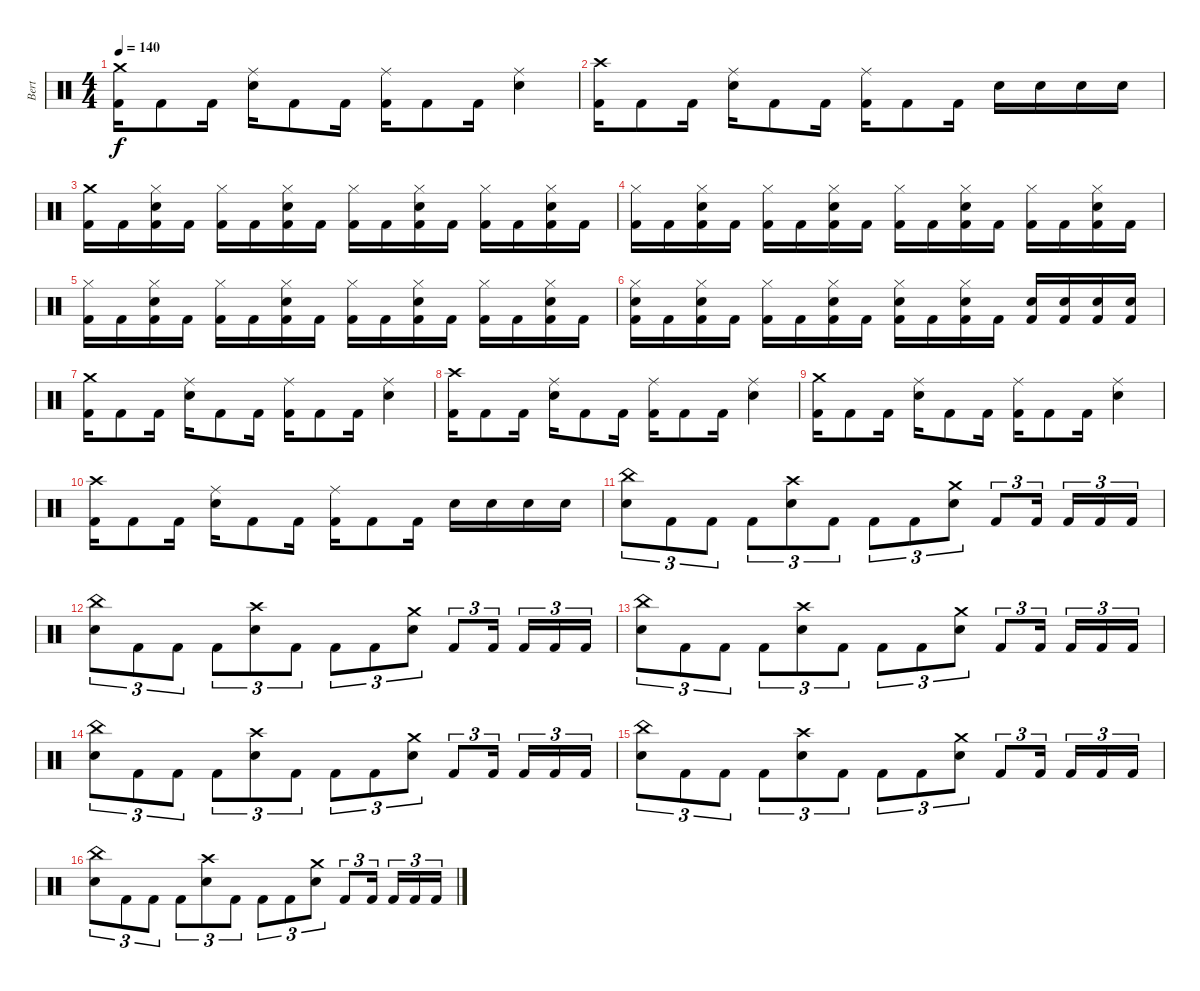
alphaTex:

\track ("Bert" "Bert") {instrument percussion}
\staff {score}
\articulation defaults
\ts (4 4)
\tempo 140
\clef neutral
\ks c
("Crash medium (hit)" "Kick (hit) 2").16{dy f} "Kick (hit) 2".8 "Kick (hit) 2".16 ("Ride (middle)" "Snare (hit) 2").16 "Kick (hit) 2".8 "Kick (hit) 2".16 ("Ride (middle)" "Kick (hit) 2").16 "Kick (hit) 2".8 "Kick (hit) 2".16 ("Ride (middle)" "Snare (hit) 2").4 |
("Crash high (hit)" "Kick (hit) 2").16 "Kick (hit) 2".8 "Kick (hit) 2".16 ("Ride (middle)" "Snare (hit) 2").16 "Kick (hit) 2".8 "Kick (hit) 2".16 ("Ride (middle)" "Kick (hit) 2").16 "Kick (hit) 2".8 "Kick (hit) 2".16 "Snare (hit) 2".16 "Snare (hit) 2".16 "Snare (hit) 2".16 "Snare (hit) 2".16 |
("Crash medium (hit)" "Kick (hit) 2").16 "Kick (hit) 2".16 ("Hi-Hat (closed)" "Snare (hit) 2" "Kick (hit) 2").16 "Kick (hit) 2".16 ("Hi-Hat (closed)" "Kick (hit) 2").16 "Kick (hit) 2".16 ("Hi-Hat (closed)" "Snare (hit) 2" "Kick (hit) 2").16 "Kick (hit) 2".16 ("Hi-Hat (closed)" "Kick (hit) 2").16 "Kick (hit) 2".16 ("Hi-Hat (closed)" "Snare (hit) 2" "Kick (hit) 2").16 "Kick (hit) 2".16 ("Hi-Hat (closed)" "Kick (hit) 2").16 "Kick (hit) 2".16 ("Hi-Hat (closed)" "Snare (hit) 2" "Kick (hit) 2").16 "Kick (hit) 2".16 |
("Hi-Hat (closed)" "Kick (hit) 2").16 "Kick (hit) 2".16 ("Hi-Hat (closed)" "Snare (hit) 2" "Kick (hit) 2").16 "Kick (hit) 2".16 ("Hi-Hat (closed)" "Kick (hit) 2").16 "Kick (hit) 2".16 ("Hi-Hat (closed)" "Snare (hit) 2" "Kick (hit) 2").16 "Kick (hit) 2".16 ("Hi-Hat (closed)" "Kick (hit) 2").16 "Kick (hit) 2".16 ("Hi-Hat (closed)" "Snare (hit) 2" "Kick (hit) 2").16 "Kick (hit) 2".16 ("Hi-Hat (closed)" "Kick (hit) 2").16 "Kick (hit) 2".16 ("Hi-Hat (closed)" "Snare (hit) 2" "Kick (hit) 2").16 "Kick (hit) 2".16 |
("Hi-Hat (closed)" "Kick (hit) 2").16 "Kick (hit) 2".16 ("Hi-Hat (closed)" "Snare (hit) 2" "Kick (hit) 2").16 "Kick (hit) 2".16 ("Hi-Hat (closed)" "Kick (hit) 2").16 "Kick (hit) 2".16 ("Hi-Hat (closed)" "Snare (hit) 2" "Kick (hit) 2").16 "Kick (hit) 2".16 ("Hi-Hat (closed)" "Kick (hit) 2").16 "Kick (hit) 2".16 ("Hi-Hat (closed)" "Snare (hit) 2" "Kick (hit) 2").16 "Kick (hit) 2".16 ("Hi-Hat (closed)" "Kick (hit) 2").16 "Kick (hit) 2".16 ("Hi-Hat (closed)" "Snare (hit) 2" "Kick (hit) 2").16 "Kick (hit) 2".16 |
("Hi-Hat (closed)" "Snare (hit) 2" "Kick (hit) 2").16 "Kick (hit) 2".16 ("Hi-Hat (closed)" "Snare (hit) 2" "Kick (hit) 2").16 "Kick (hit) 2".16 ("Hi-Hat (closed)" "Kick (hit) 2").16 "Kick (hit) 2".16 ("Hi-Hat (closed)" "Snare (hit) 2" "Kick (hit) 2").16 "Kick (hit) 2".16 ("Hi-Hat (closed)" "Snare (hit) 2" "Kick (hit) 2").16 "Kick (hit) 2".16 ("Hi-Hat (closed)" "Snare (hit) 2" "Kick (hit) 2").16 "Kick (hit) 2".16 ("Snare (hit) 2" "Kick (hit) 2").16 ("Snare (hit) 2" "Kick (hit) 2").16 ("Snare (hit) 2" "Kick (hit) 2").16 ("Snare (hit) 2" "Kick (hit) 2").16 |
("Crash medium (hit)" "Kick (hit) 2").16 "Kick (hit) 2".8 "Kick (hit) 2".16 ("Ride (middle)" "Snare (hit) 2").16 "Kick (hit) 2".8 "Kick (hit) 2".16 ("Ride (middle)" "Kick (hit) 2").16 "Kick (hit) 2".8 "Kick (hit) 2".16 ("Ride (middle)" "Snare (hit) 2").4 |
("Crash high (hit)" "Kick (hit) 2").16 "Kick (hit) 2".8 "Kick (hit) 2".16 ("Ride (middle)" "Snare (hit) 2").16 "Kick (hit) 2".8 "Kick (hit) 2".16 ("Ride (middle)" "Kick (hit) 2").16 "Kick (hit) 2".8 "Kick (hit) 2".16 ("Ride (middle)" "Snare (hit) 2").4 |
("Crash medium (hit)" "Kick (hit) 2").16 "Kick (hit) 2".8 "Kick (hit) 2".16 ("Ride (middle)" "Snare (hit) 2").16 "Kick (hit) 2".8 "Kick (hit) 2".16 ("Ride (middle)" "Kick (hit) 2").16 "Kick (hit) 2".8 "Kick (hit) 2".16 ("Ride (middle)" "Snare (hit) 2").4 |
("Crash high (hit)" "Kick (hit) 2").16 "Kick (hit) 2".8 "Kick (hit) 2".16 ("Ride (middle)" "Snare (hit) 2").16 "Kick (hit) 2".8 "Kick (hit) 2".16 ("Ride (middle)" "Kick (hit) 2").16 "Kick (hit) 2".8 "Kick (hit) 2".16 "Snare (hit) 2".16 "Snare (hit) 2".16 "Snare (hit) 2".16 "Snare (hit) 2".16 |
("China (hit)" "Snare (hit) 2").8{tu (3 2)} "Kick (hit) 2".8{tu (3 2)} "Kick (hit) 2".8{tu (3 2)} "Kick (hit) 2".8{tu (3 2)} ("Crash high (hit)" "Snare (hit) 2").8{tu (3 2)} "Kick (hit) 2".8{tu (3 2)} "Kick (hit) 2".8{tu (3 2)} "Kick (hit) 2".8{tu (3 2)} ("Crash medium (hit)" "Snare (hit) 2").8{tu (3 2)} "Kick (hit) 2".8{tu (3 2)} "Kick (hit) 2".16{tu (3 2)} "Kick (hit) 2".16{tu (3 2)} "Kick (hit) 2".16{tu (3 2)} "Kick (hit) 2".16{tu (3 2)} |
("China (hit)" "Snare (hit) 2").8{tu (3 2)} "Kick (hit) 2".8{tu (3 2)} "Kick (hit) 2".8{tu (3 2)} "Kick (hit) 2".8{tu (3 2)} ("Crash high (hit)" "Snare (hit) 2").8{tu (3 2)} "Kick (hit) 2".8{tu (3 2)} "Kick (hit) 2".8{tu (3 2)} "Kick (hit) 2".8{tu (3 2)} ("Crash medium (hit)" "Snare (hit) 2").8{tu (3 2)} "Kick (hit) 2".8{tu (3 2)} "Kick (hit) 2".16{tu (3 2)} "Kick (hit) 2".16{tu (3 2)} "Kick (hit) 2".16{tu (3 2)} "Kick (hit) 2".16{tu (3 2)} |
("China (hit)" "Snare (hit) 2").8{tu (3 2)} "Kick (hit) 2".8{tu (3 2)} "Kick (hit) 2".8{tu (3 2)} "Kick (hit) 2".8{tu (3 2)} ("Crash high (hit)" "Snare (hit) 2").8{tu (3 2)} "Kick (hit) 2".8{tu (3 2)} "Kick (hit) 2".8{tu (3 2)} "Kick (hit) 2".8{tu (3 2)} ("Crash medium (hit)" "Snare (hit) 2").8{tu (3 2)} "Kick (hit) 2".8{tu (3 2)} "Kick (hit) 2".16{tu (3 2)} "Kick (hit) 2".16{tu (3 2)} "Kick (hit) 2".16{tu (3 2)} "Kick (hit) 2".16{tu (3 2)} |
("China (hit)" "Snare (hit) 2").8{tu (3 2)} "Kick (hit) 2".8{tu (3 2)} "Kick (hit) 2".8{tu (3 2)} "Kick (hit) 2".8{tu (3 2)} ("Crash high (hit)" "Snare (hit) 2").8{tu (3 2)} "Kick (hit) 2".8{tu (3 2)} "Kick (hit) 2".8{tu (3 2)} "Kick (hit) 2".8{tu (3 2)} ("Crash medium (hit)" "Snare (hit) 2").8{tu (3 2)} "Kick (hit) 2".8{tu (3 2)} "Kick (hit) 2".16{tu (3 2)} "Kick (hit) 2".16{tu (3 2)} "Kick (hit) 2".16{tu (3 2)} "Kick (hit) 2".16{tu (3 2)} |
("China (hit)" "Snare (hit) 2").8{tu (3 2)} "Kick (hit) 2".8{tu (3 2)} "Kick (hit) 2".8{tu (3 2)} "Kick (hit) 2".8{tu (3 2)} ("Crash high (hit)" "Snare (hit) 2").8{tu (3 2)} "Kick (hit) 2".8{tu (3 2)} "Kick (hit) 2".8{tu (3 2)} "Kick (hit) 2".8{tu (3 2)} ("Crash medium (hit)" "Snare (hit) 2").8{tu (3 2)} "Kick (hit) 2".8{tu (3 2)} "Kick (hit) 2".16{tu (3 2)} "Kick (hit) 2".16{tu (3 2)} "Kick (hit) 2".16{tu (3 2)} "Kick (hit) 2".16{tu (3 2)} |
("China (hit)" "Snare (hit) 2").8{tu (3 2)} "Kick (hit) 2".8{tu (3 2)} "Kick (hit) 2".8{tu (3 2)} "Kick (hit) 2".8{tu (3 2)} ("Crash high (hit)" "Snare (hit) 2").8{tu (3 2)} "Kick (hit) 2".8{tu (3 2)} "Kick (hit) 2".8{tu (3 2)} "Kick (hit) 2".8{tu (3 2)} ("Crash medium (hit)" "Snare (hit) 2").8{tu (3 2)} "Kick (hit) 2".8{tu (3 2)} "Kick (hit) 2".16{tu (3 2)} "Kick (hit) 2".16{tu (3 2)} "Kick (hit) 2".16{tu (3 2)} "Kick (hit) 2".16{tu (3 2)}
